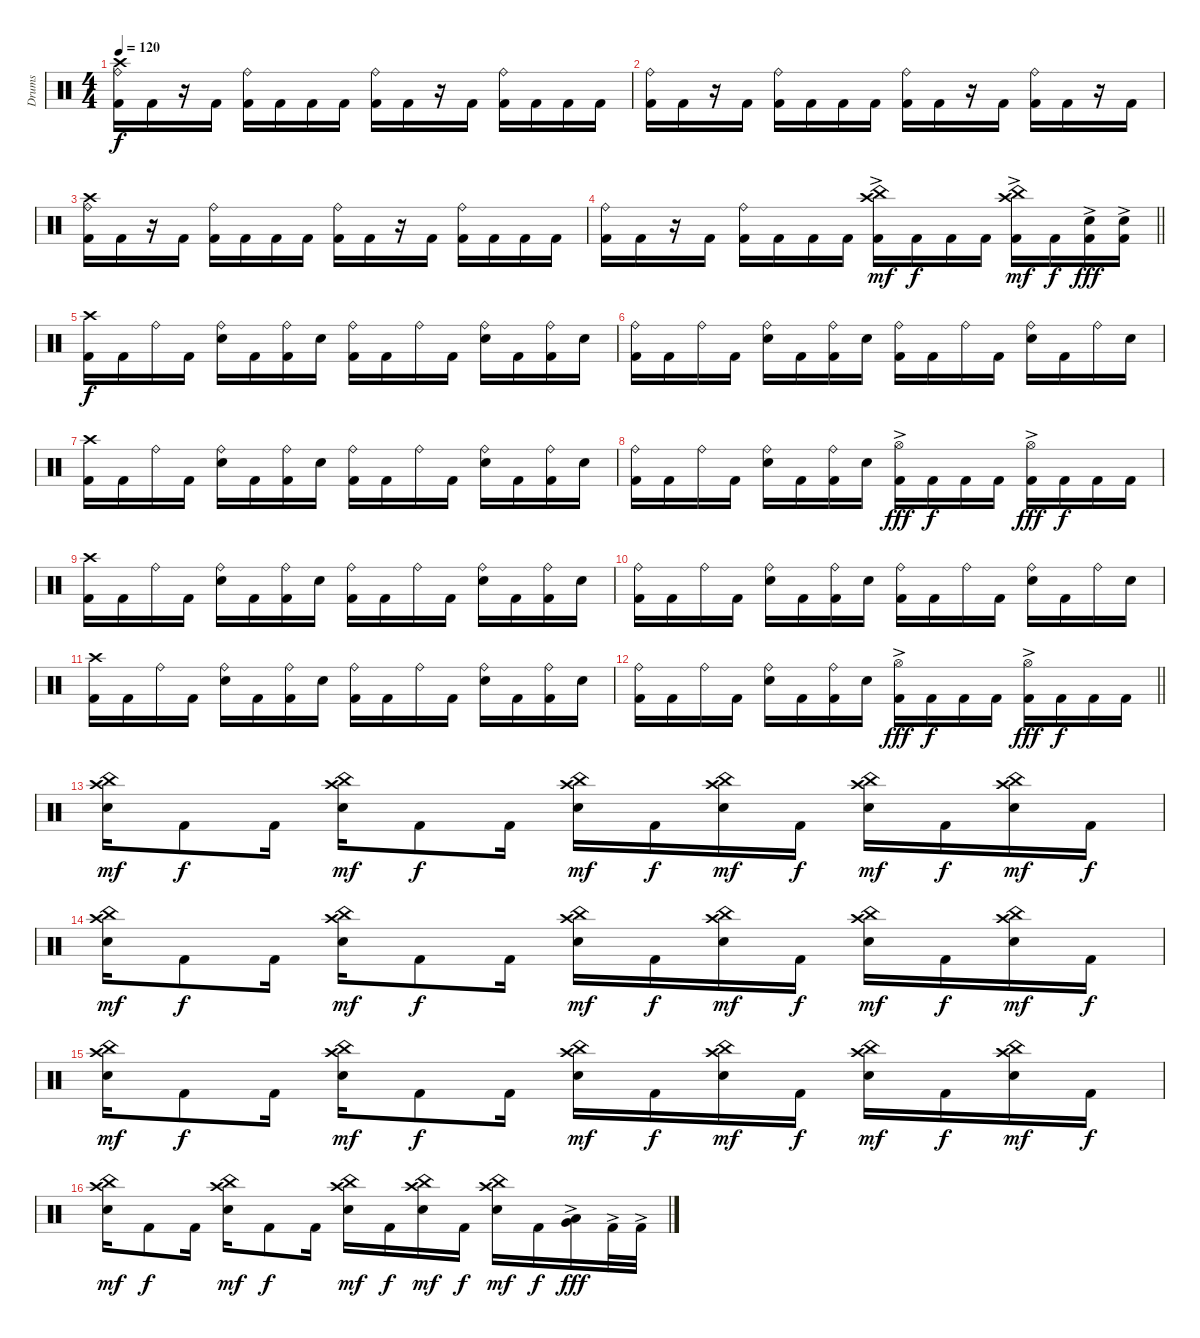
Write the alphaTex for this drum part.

\track ("Drums" "Drums") {instrument percussion}
\staff {score}
\articulation defaults
\ts (4 4)
\tempo 120
\clef neutral
\ks c
("Crash high (hit)" "Ride (bell)" "Kick (hit) 2").16{dy f} "Kick (hit) 2".16 r.16 "Kick (hit) 2".16 ("Ride (bell)" "Kick (hit) 2").16 "Kick (hit) 2".16 "Kick (hit) 2".16 "Kick (hit) 2".16 ("Ride (bell)" "Kick (hit) 2").16 "Kick (hit) 2".16 r.16 "Kick (hit) 2".16 ("Ride (bell)" "Kick (hit) 2").16 "Kick (hit) 2".16 "Kick (hit) 2".16 "Kick (hit) 2".16 |
("Ride (bell)" "Kick (hit) 2").16 "Kick (hit) 2".16 r.16 "Kick (hit) 2".16 ("Ride (bell)" "Kick (hit) 2").16 "Kick (hit) 2".16 "Kick (hit) 2".16 "Kick (hit) 2".16 ("Ride (bell)" "Kick (hit) 2").16 "Kick (hit) 2".16 r.16 "Kick (hit) 2".16 ("Ride (bell)" "Kick (hit) 2").16 "Kick (hit) 2".16 r.16 "Kick (hit) 2".16 |
("Crash high (hit)" "Ride (bell)" "Kick (hit) 2").16 "Kick (hit) 2".16 r.16 "Kick (hit) 2".16 ("Ride (bell)" "Kick (hit) 2").16 "Kick (hit) 2".16 "Kick (hit) 2".16 "Kick (hit) 2".16 ("Ride (bell)" "Kick (hit) 2").16 "Kick (hit) 2".16 r.16 "Kick (hit) 2".16 ("Ride (bell)" "Kick (hit) 2").16 "Kick (hit) 2".16 "Kick (hit) 2".16 "Kick (hit) 2".16 |
\barLineRight lightlight
("Ride (bell)" "Kick (hit) 2").16 "Kick (hit) 2".16 r.16 "Kick (hit) 2".16 ("Ride (bell)" "Kick (hit) 2").16 "Kick (hit) 2".16 "Kick (hit) 2".16 "Kick (hit) 2".16 ("China (hit)"{ac} "Crash high (hit)" "Kick (hit) 2").16{dy mf} "Kick (hit) 2".16{dy f} "Kick (hit) 2".16 "Kick (hit) 2".16 ("China (hit)"{ac} "Crash high (hit)" "Kick (hit) 2").16{dy mf} "Kick (hit) 2".16{dy f} ("Snare (hit) 2"{ac} "Kick (hit) 2").16{dy fff} ("Snare (hit) 2"{ac} "Kick (hit) 2").16 |
("Crash high (hit)" "Kick (hit) 2").16{dy f} "Kick (hit) 2".16 "Ride (bell)".16 "Kick (hit) 2".16 ("Ride (bell)" "Snare (hit) 2").16 "Kick (hit) 2".16 ("Ride (bell)" "Kick (hit) 2").16 "Snare (hit) 2".16 ("Ride (bell)" "Kick (hit) 2").16 "Kick (hit) 2".16 "Ride (bell)".16 "Kick (hit) 2".16 ("Ride (bell)" "Snare (hit) 2").16 "Kick (hit) 2".16 ("Ride (bell)" "Kick (hit) 2").16 "Snare (hit) 2".16 |
("Ride (bell)" "Kick (hit) 2").16 "Kick (hit) 2".16 "Ride (bell)".16 "Kick (hit) 2".16 ("Ride (bell)" "Snare (hit) 2").16 "Kick (hit) 2".16 ("Ride (bell)" "Kick (hit) 2").16 "Snare (hit) 2".16 ("Ride (bell)" "Kick (hit) 2").16 "Kick (hit) 2".16 "Ride (bell)".16 "Kick (hit) 2".16 ("Ride (bell)" "Snare (hit) 2").16 "Kick (hit) 2".16 "Ride (bell)".16 "Snare (hit) 2".16 |
("Crash high (hit)" "Kick (hit) 2").16 "Kick (hit) 2".16 "Ride (bell)".16 "Kick (hit) 2".16 ("Ride (bell)" "Snare (hit) 2").16 "Kick (hit) 2".16 ("Ride (bell)" "Kick (hit) 2").16 "Snare (hit) 2".16 ("Ride (bell)" "Kick (hit) 2").16 "Kick (hit) 2".16 "Ride (bell)".16 "Kick (hit) 2".16 ("Ride (bell)" "Snare (hit) 2").16 "Kick (hit) 2".16 ("Ride (bell)" "Kick (hit) 2").16 "Snare (hit) 2".16 |
("Ride (bell)" "Kick (hit) 2").16 "Kick (hit) 2".16 "Ride (bell)".16 "Kick (hit) 2".16 ("Ride (bell)" "Snare (hit) 2").16 "Kick (hit) 2".16 ("Ride (bell)" "Kick (hit) 2").16 "Snare (hit) 2".16 ("Hi-Hat (open)"{ac} "Kick (hit) 2").16{dy fff} "Kick (hit) 2".16{dy f} "Kick (hit) 2".16 "Kick (hit) 2".16 ("Hi-Hat (open)"{ac} "Kick (hit) 2").16{dy fff} "Kick (hit) 2".16{dy f} "Kick (hit) 2".16 "Kick (hit) 2".16 |
("Crash high (hit)" "Kick (hit) 2").16 "Kick (hit) 2".16 "Ride (bell)".16 "Kick (hit) 2".16 ("Ride (bell)" "Snare (hit) 2").16 "Kick (hit) 2".16 ("Ride (bell)" "Kick (hit) 2").16 "Snare (hit) 2".16 ("Ride (bell)" "Kick (hit) 2").16 "Kick (hit) 2".16 "Ride (bell)".16 "Kick (hit) 2".16 ("Ride (bell)" "Snare (hit) 2").16 "Kick (hit) 2".16 ("Ride (bell)" "Kick (hit) 2").16 "Snare (hit) 2".16 |
("Ride (bell)" "Kick (hit) 2").16 "Kick (hit) 2".16 "Ride (bell)".16 "Kick (hit) 2".16 ("Ride (bell)" "Snare (hit) 2").16 "Kick (hit) 2".16 ("Ride (bell)" "Kick (hit) 2").16 "Snare (hit) 2".16 ("Ride (bell)" "Kick (hit) 2").16 "Kick (hit) 2".16 "Ride (bell)".16 "Kick (hit) 2".16 ("Ride (bell)" "Snare (hit) 2").16 "Kick (hit) 2".16 "Ride (bell)".16 "Snare (hit) 2".16 |
("Crash high (hit)" "Kick (hit) 2").16 "Kick (hit) 2".16 "Ride (bell)".16 "Kick (hit) 2".16 ("Ride (bell)" "Snare (hit) 2").16 "Kick (hit) 2".16 ("Ride (bell)" "Kick (hit) 2").16 "Snare (hit) 2".16 ("Ride (bell)" "Kick (hit) 2").16 "Kick (hit) 2".16 "Ride (bell)".16 "Kick (hit) 2".16 ("Ride (bell)" "Snare (hit) 2").16 "Kick (hit) 2".16 ("Ride (bell)" "Kick (hit) 2").16 "Snare (hit) 2".16 |
\barLineRight lightlight
("Ride (bell)" "Kick (hit) 2").16 "Kick (hit) 2".16 "Ride (bell)".16 "Kick (hit) 2".16 ("Ride (bell)" "Snare (hit) 2").16 "Kick (hit) 2".16 ("Ride (bell)" "Kick (hit) 2").16 "Snare (hit) 2".16 ("Hi-Hat (open)"{ac} "Kick (hit) 2").16{dy fff} "Kick (hit) 2".16{dy f} "Kick (hit) 2".16 "Kick (hit) 2".16 ("Hi-Hat (open)"{ac} "Kick (hit) 2").16{dy fff} "Kick (hit) 2".16{dy f} "Kick (hit) 2".16 "Kick (hit) 2".16 |
("Crash high (hit)" "China (hit)" "Snare (hit) 2").16{dy mf} "Kick (hit) 2".8{dy f} "Kick (hit) 2".16 ("Crash high (hit)" "China (hit)" "Snare (hit) 2").16{dy mf} "Kick (hit) 2".8{dy f} "Kick (hit) 2".16 ("Crash high (hit)" "China (hit)" "Snare (hit) 2").16{dy mf} "Kick (hit) 2".16{dy f} ("Crash high (hit)" "China (hit)" "Snare (hit) 2").16{dy mf} "Kick (hit) 2".16{dy f} ("Crash high (hit)" "China (hit)" "Snare (hit) 2").16{dy mf} "Kick (hit) 2".16{dy f} ("Crash high (hit)" "China (hit)" "Snare (hit) 2").16{dy mf} "Kick (hit) 2".16{dy f} |
("Crash high (hit)" "China (hit)" "Snare (hit) 2").16{dy mf} "Kick (hit) 2".8{dy f} "Kick (hit) 2".16 ("Crash high (hit)" "China (hit)" "Snare (hit) 2").16{dy mf} "Kick (hit) 2".8{dy f} "Kick (hit) 2".16 ("Crash high (hit)" "China (hit)" "Snare (hit) 2").16{dy mf} "Kick (hit) 2".16{dy f} ("Crash high (hit)" "China (hit)" "Snare (hit) 2").16{dy mf} "Kick (hit) 2".16{dy f} ("Crash high (hit)" "China (hit)" "Snare (hit) 2").16{dy mf} "Kick (hit) 2".16{dy f} ("Crash high (hit)" "China (hit)" "Snare (hit) 2").16{dy mf} "Kick (hit) 2".16{dy f} |
("Crash high (hit)" "China (hit)" "Snare (hit) 2").16{dy mf} "Kick (hit) 2".8{dy f} "Kick (hit) 2".16 ("Crash high (hit)" "China (hit)" "Snare (hit) 2").16{dy mf} "Kick (hit) 2".8{dy f} "Kick (hit) 2".16 ("Crash high (hit)" "China (hit)" "Snare (hit) 2").16{dy mf} "Kick (hit) 2".16{dy f} ("Crash high (hit)" "China (hit)" "Snare (hit) 2").16{dy mf} "Kick (hit) 2".16{dy f} ("Crash high (hit)" "China (hit)" "Snare (hit) 2").16{dy mf} "Kick (hit) 2".16{dy f} ("Crash high (hit)" "China (hit)" "Snare (hit) 2").16{dy mf} "Kick (hit) 2".16{dy f} |
("Crash high (hit)" "China (hit)" "Snare (hit) 2").16{dy mf} "Kick (hit) 2".8{dy f} "Kick (hit) 2".16 ("Crash high (hit)" "China (hit)" "Snare (hit) 2").16{dy mf} "Kick (hit) 2".8{dy f} "Kick (hit) 2".16 ("Crash high (hit)" "China (hit)" "Snare (hit) 2").16{dy mf} "Kick (hit) 2".16{dy f} ("Crash high (hit)" "China (hit)" "Snare (hit) 2").16{dy mf} "Kick (hit) 2".16{dy f} ("Crash high (hit)" "China (hit)" "Snare (hit) 2").16{dy mf} "Kick (hit) 2".16{dy f} ("Low Tom (hit)"{ac} "Very Low Tom (hit)"{ac}).16{dy fff} "Kick (hit) 2"{ac}.32 "Kick (hit) 2"{ac}.32
